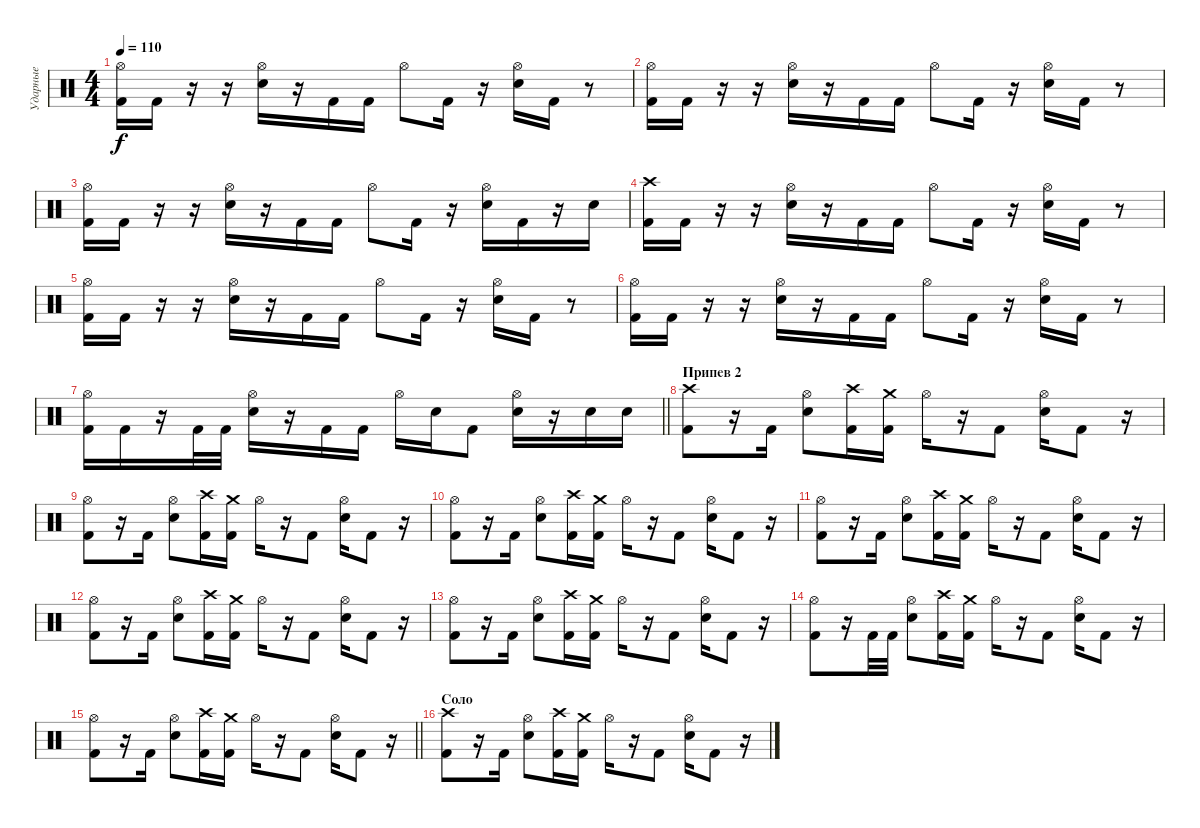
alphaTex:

\track ("Ударные" "Ударные") {instrument percussion}
\staff {score}
\articulation defaults
\ts (4 4)
\tempo 110
\clef neutral
\ks c
("Hi-Hat (open)" "Kick (hit) 2").16{dy f} "Kick (hit) 2".16 r.16 r.16 ("Hi-Hat (open)" "Snare (hit) 2").16 r.16 "Kick (hit) 2".16 "Kick (hit) 2".16 "Hi-Hat (open)".8 "Kick (hit) 2".16 r.16 ("Hi-Hat (open)" "Snare (hit) 2").16 "Kick (hit) 2".16 r.8 |
("Hi-Hat (open)" "Kick (hit) 2").16 "Kick (hit) 2".16 r.16 r.16 ("Hi-Hat (open)" "Snare (hit) 2").16 r.16 "Kick (hit) 2".16 "Kick (hit) 2".16 "Hi-Hat (open)".8 "Kick (hit) 2".16 r.16 ("Hi-Hat (open)" "Snare (hit) 2").16 "Kick (hit) 2".16 r.8 |
("Hi-Hat (open)" "Kick (hit) 2").16 "Kick (hit) 2".16 r.16 r.16 ("Hi-Hat (open)" "Snare (hit) 2").16 r.16 "Kick (hit) 2".16 "Kick (hit) 2".16 "Hi-Hat (open)".8 "Kick (hit) 2".16 r.16 ("Hi-Hat (open)" "Snare (hit) 2").16 "Kick (hit) 2".16 r.16 "Snare (hit) 2".16 |
("Crash high (hit)" "Kick (hit) 2").16 "Kick (hit) 2".16 r.16 r.16 ("Hi-Hat (open)" "Snare (hit) 2").16 r.16 "Kick (hit) 2".16 "Kick (hit) 2".16 "Hi-Hat (open)".8 "Kick (hit) 2".16 r.16 ("Hi-Hat (open)" "Snare (hit) 2").16 "Kick (hit) 2".16 r.8 |
("Hi-Hat (open)" "Kick (hit) 2").16 "Kick (hit) 2".16 r.16 r.16 ("Hi-Hat (open)" "Snare (hit) 2").16 r.16 "Kick (hit) 2".16 "Kick (hit) 2".16 "Hi-Hat (open)".8 "Kick (hit) 2".16 r.16 ("Hi-Hat (open)" "Snare (hit) 2").16 "Kick (hit) 2".16 r.8 |
("Hi-Hat (open)" "Kick (hit) 2").16 "Kick (hit) 2".16 r.16 r.16 ("Hi-Hat (open)" "Snare (hit) 2").16 r.16 "Kick (hit) 2".16 "Kick (hit) 2".16 "Hi-Hat (open)".8 "Kick (hit) 2".16 r.16 ("Hi-Hat (open)" "Snare (hit) 2").16 "Kick (hit) 2".16 r.8 |
\barLineRight lightlight
("Hi-Hat (open)" "Kick (hit) 2").16 "Kick (hit) 2".16 r.16 "Kick (hit) 2".32 "Kick (hit) 2".32 ("Hi-Hat (open)" "Snare (hit) 2").16 r.16 "Kick (hit) 2".16 "Kick (hit) 2".16 "Hi-Hat (open)".16 "Snare (hit) 2".16 "Kick (hit) 2".8 ("Hi-Hat (open)" "Snare (hit) 2").16 r.16 "Snare (hit) 2".16 "Snare (hit) 2".16 |
\section ("" "Припев 2")
("Crash high (hit)" "Kick (hit) 2").8 r.16 "Kick (hit) 2".16 ("Hi-Hat (open)" "Snare (hit) 2").8 ("Crash high (hit)" "Kick (hit) 2").16 ("Crash medium (hit)" "Kick (hit) 2").16 "Hi-Hat (open)".16 r.16 "Kick (hit) 2".8 ("Hi-Hat (open)" "Snare (hit) 2").16 "Kick (hit) 2".8 r.16 |
("Hi-Hat (open)" "Kick (hit) 2").8 r.16 "Kick (hit) 2".16 ("Hi-Hat (open)" "Snare (hit) 2").8 ("Crash high (hit)" "Kick (hit) 2").16 ("Crash medium (hit)" "Kick (hit) 2").16 "Hi-Hat (open)".16 r.16 "Kick (hit) 2".8 ("Hi-Hat (open)" "Snare (hit) 2").16 "Kick (hit) 2".8 r.16 |
("Hi-Hat (open)" "Kick (hit) 2").8 r.16 "Kick (hit) 2".16 ("Hi-Hat (open)" "Snare (hit) 2").8 ("Crash high (hit)" "Kick (hit) 2").16 ("Crash medium (hit)" "Kick (hit) 2").16 "Hi-Hat (open)".16 r.16 "Kick (hit) 2".8 ("Hi-Hat (open)" "Snare (hit) 2").16 "Kick (hit) 2".8 r.16 |
("Hi-Hat (open)" "Kick (hit) 2").8 r.16 "Kick (hit) 2".16 ("Hi-Hat (open)" "Snare (hit) 2").8 ("Crash high (hit)" "Kick (hit) 2").16 ("Crash medium (hit)" "Kick (hit) 2").16 "Hi-Hat (open)".16 r.16 "Kick (hit) 2".8 ("Hi-Hat (open)" "Snare (hit) 2").16 "Kick (hit) 2".8 r.16 |
("Hi-Hat (open)" "Kick (hit) 2").8 r.16 "Kick (hit) 2".16 ("Hi-Hat (open)" "Snare (hit) 2").8 ("Crash high (hit)" "Kick (hit) 2").16 ("Crash medium (hit)" "Kick (hit) 2").16 "Hi-Hat (open)".16 r.16 "Kick (hit) 2".8 ("Hi-Hat (open)" "Snare (hit) 2").16 "Kick (hit) 2".8 r.16 |
("Hi-Hat (open)" "Kick (hit) 2").8 r.16 "Kick (hit) 2".16 ("Hi-Hat (open)" "Snare (hit) 2").8 ("Crash high (hit)" "Kick (hit) 2").16 ("Crash medium (hit)" "Kick (hit) 2").16 "Hi-Hat (open)".16 r.16 "Kick (hit) 2".8 ("Hi-Hat (open)" "Snare (hit) 2").16 "Kick (hit) 2".8 r.16 |
("Hi-Hat (open)" "Kick (hit) 2").8 r.16 "Kick (hit) 2".32 "Kick (hit) 2".32 ("Hi-Hat (open)" "Snare (hit) 2").8 ("Crash high (hit)" "Kick (hit) 2").16 ("Crash medium (hit)" "Kick (hit) 2").16 "Hi-Hat (open)".16 r.16 "Kick (hit) 2".8 ("Hi-Hat (open)" "Snare (hit) 2").16 "Kick (hit) 2".8 r.16 |
\barLineRight lightlight
("Hi-Hat (open)" "Kick (hit) 2").8 r.16 "Kick (hit) 2".16 ("Hi-Hat (open)" "Snare (hit) 2").8 ("Crash high (hit)" "Kick (hit) 2").16 ("Crash medium (hit)" "Kick (hit) 2").16 "Hi-Hat (open)".16 r.16 "Kick (hit) 2".8 ("Hi-Hat (open)" "Snare (hit) 2").16 "Kick (hit) 2".8 r.16 |
\section ("" "Соло")
("Crash high (hit)" "Kick (hit) 2").8 r.16 "Kick (hit) 2".16 ("Hi-Hat (open)" "Snare (hit) 2").8 ("Crash high (hit)" "Kick (hit) 2").16 ("Crash medium (hit)" "Kick (hit) 2").16 "Hi-Hat (open)".16 r.16 "Kick (hit) 2".8 ("Hi-Hat (open)" "Snare (hit) 2").16 "Kick (hit) 2".8 r.16
